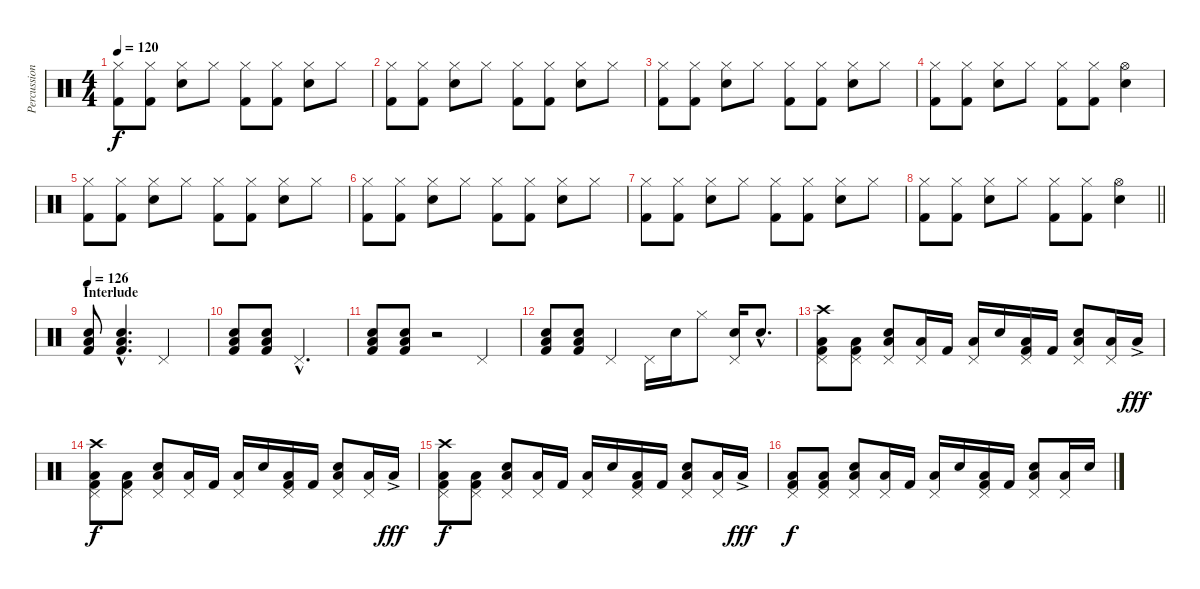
\track ("Percussion" "Percussion") {instrument percussion}
\staff {score}
\articulation defaults
\ts (4 4)
\tempo 120
\clef neutral
\ks c
("Hi-Hat (closed)" "Kick (hit) 2").8{dy f} ("Hi-Hat (closed)" "Kick (hit) 2").8 ("Hi-Hat (closed)" "Snare (hit) 2").8 "Hi-Hat (closed)".8 ("Hi-Hat (closed)" "Kick (hit) 2").8 ("Hi-Hat (closed)" "Kick (hit) 2").8 ("Hi-Hat (closed)" "Snare (hit) 2").8 "Hi-Hat (closed)".8 |
("Hi-Hat (closed)" "Kick (hit) 2").8 ("Hi-Hat (closed)" "Kick (hit) 2").8 ("Hi-Hat (closed)" "Snare (hit) 2").8 "Hi-Hat (closed)".8 ("Hi-Hat (closed)" "Kick (hit) 2").8 ("Hi-Hat (closed)" "Kick (hit) 2").8 ("Hi-Hat (closed)" "Snare (hit) 2").8 "Hi-Hat (closed)".8 |
("Hi-Hat (closed)" "Kick (hit) 2").8 ("Hi-Hat (closed)" "Kick (hit) 2").8 ("Hi-Hat (closed)" "Snare (hit) 2").8 "Hi-Hat (closed)".8 ("Hi-Hat (closed)" "Kick (hit) 2").8 ("Hi-Hat (closed)" "Kick (hit) 2").8 ("Hi-Hat (closed)" "Snare (hit) 2").8 "Hi-Hat (closed)".8 |
("Hi-Hat (closed)" "Kick (hit) 2").8 ("Hi-Hat (closed)" "Kick (hit) 2").8 ("Hi-Hat (closed)" "Snare (hit) 2").8 "Hi-Hat (closed)".8 ("Hi-Hat (closed)" "Kick (hit) 2").8 ("Hi-Hat (closed)" "Kick (hit) 2").8 ("Hi-Hat (open)" "Snare (hit) 2").4 |
("Hi-Hat (closed)" "Kick (hit) 2").8 ("Hi-Hat (closed)" "Kick (hit) 2").8 ("Hi-Hat (closed)" "Snare (hit) 2").8 "Hi-Hat (closed)".8 ("Hi-Hat (closed)" "Kick (hit) 2").8 ("Hi-Hat (closed)" "Kick (hit) 2").8 ("Hi-Hat (closed)" "Snare (hit) 2").8 "Hi-Hat (closed)".8 |
("Hi-Hat (closed)" "Kick (hit) 2").8 ("Hi-Hat (closed)" "Kick (hit) 2").8 ("Hi-Hat (closed)" "Snare (hit) 2").8 "Hi-Hat (closed)".8 ("Hi-Hat (closed)" "Kick (hit) 2").8 ("Hi-Hat (closed)" "Kick (hit) 2").8 ("Hi-Hat (closed)" "Snare (hit) 2").8 "Hi-Hat (closed)".8 |
("Hi-Hat (closed)" "Kick (hit) 2").8 ("Hi-Hat (closed)" "Kick (hit) 2").8 ("Hi-Hat (closed)" "Snare (hit) 2").8 "Hi-Hat (closed)".8 ("Hi-Hat (closed)" "Kick (hit) 2").8 ("Hi-Hat (closed)" "Kick (hit) 2").8 ("Hi-Hat (closed)" "Snare (hit) 2").8 "Hi-Hat (closed)".8 |
\barLineRight lightlight
("Hi-Hat (closed)" "Kick (hit) 2").8 ("Hi-Hat (closed)" "Kick (hit) 2").8 ("Hi-Hat (closed)" "Snare (hit) 2").8 "Hi-Hat (closed)".8 ("Hi-Hat (closed)" "Kick (hit) 2").8 ("Hi-Hat (closed)" "Kick (hit) 2").8 ("Hi-Hat (open)" "Snare (hit) 2").4 |
\section ("" "Interlude")
\tempo 126
("Snare (hit) 2" "Low Floor Tom (hit)" "Kick (hit) 2").8 ("Snare (hit) 2"{hac} "Low Floor Tom (hit)"{hac} "Kick (hit) 2"{hac}).4{d} "Pedal Hi-Hat (hit)".2 |
("Snare (hit) 2" "Low Floor Tom (hit)" "Kick (hit) 2").8 ("Snare (hit) 2" "Low Floor Tom (hit)" "Kick (hit) 2").8 "Pedal Hi-Hat (hit)"{hac}.2{d} |
("Snare (hit) 2" "Low Floor Tom (hit)" "Kick (hit) 2").8 ("Snare (hit) 2" "Low Floor Tom (hit)" "Kick (hit) 2").8 r.2 "Pedal Hi-Hat (hit)".4 |
("Snare (hit) 2" "Low Floor Tom (hit)" "Kick (hit) 2").8 ("Snare (hit) 2" "Low Floor Tom (hit)" "Kick (hit) 2").8 "Pedal Hi-Hat (hit)".4 "Pedal Hi-Hat (hit)".16 "Snare (hit) 2".16 "Hi-Hat (closed)".8 ("Pedal Hi-Hat (hit)" "Snare (hit) 2").16 "Snare (hit) 2"{hac}.8{d} |
("Crash high (hit)" "Pedal Hi-Hat (hit)" "Low Floor Tom (hit)" "Kick (hit) 2").8 ("Pedal Hi-Hat (hit)" "Low Floor Tom (hit)" "Kick (hit) 2").8 ("Pedal Hi-Hat (hit)" "Snare (hit) 2" "Low Floor Tom (hit)").8 ("Pedal Hi-Hat (hit)" "Low Floor Tom (hit)").16 "Kick (hit) 2".16 ("Pedal Hi-Hat (hit)" "Low Floor Tom (hit)").16 "Snare (hit) 2".16 ("Pedal Hi-Hat (hit)" "Low Floor Tom (hit)" "Kick (hit) 2").16 "Kick (hit) 2".16 ("Pedal Hi-Hat (hit)" "Snare (hit) 2" "Low Floor Tom (hit)").8 ("Pedal Hi-Hat (hit)" "Low Floor Tom (hit)").16 "Low Floor Tom (hit)"{ac}.16{dy fff} |
("Crash high (hit)" "Pedal Hi-Hat (hit)" "Low Floor Tom (hit)" "Kick (hit) 2").8{dy f} ("Pedal Hi-Hat (hit)" "Low Floor Tom (hit)" "Kick (hit) 2").8 ("Pedal Hi-Hat (hit)" "Snare (hit) 2" "Low Floor Tom (hit)").8 ("Pedal Hi-Hat (hit)" "Low Floor Tom (hit)").16 "Kick (hit) 2".16 ("Pedal Hi-Hat (hit)" "Low Floor Tom (hit)").16 "Snare (hit) 2".16 ("Pedal Hi-Hat (hit)" "Low Floor Tom (hit)" "Kick (hit) 2").16 "Kick (hit) 2".16 ("Pedal Hi-Hat (hit)" "Snare (hit) 2" "Low Floor Tom (hit)").8 ("Pedal Hi-Hat (hit)" "Low Floor Tom (hit)").16 "Low Floor Tom (hit)"{ac}.16{dy fff} |
("Crash high (hit)" "Pedal Hi-Hat (hit)" "Low Floor Tom (hit)" "Kick (hit) 2").8{dy f} ("Pedal Hi-Hat (hit)" "Low Floor Tom (hit)" "Kick (hit) 2").8 ("Pedal Hi-Hat (hit)" "Snare (hit) 2" "Low Floor Tom (hit)").8 ("Pedal Hi-Hat (hit)" "Low Floor Tom (hit)").16 "Kick (hit) 2".16 ("Pedal Hi-Hat (hit)" "Low Floor Tom (hit)").16 "Snare (hit) 2".16 ("Pedal Hi-Hat (hit)" "Low Floor Tom (hit)" "Kick (hit) 2").16 "Kick (hit) 2".16 ("Pedal Hi-Hat (hit)" "Snare (hit) 2" "Low Floor Tom (hit)").8 ("Pedal Hi-Hat (hit)" "Low Floor Tom (hit)").16 "Low Floor Tom (hit)"{ac}.16{dy fff} |
("Pedal Hi-Hat (hit)" "Low Floor Tom (hit)" "Kick (hit) 2").8{dy f} ("Pedal Hi-Hat (hit)" "Low Floor Tom (hit)" "Kick (hit) 2").8 ("Pedal Hi-Hat (hit)" "Snare (hit) 2" "Low Floor Tom (hit)").8 ("Pedal Hi-Hat (hit)" "Low Floor Tom (hit)").16 "Kick (hit) 2".16 ("Pedal Hi-Hat (hit)" "Low Floor Tom (hit)").16 "Snare (hit) 2".16 ("Pedal Hi-Hat (hit)" "Low Floor Tom (hit)" "Kick (hit) 2").16 "Kick (hit) 2".16 ("Pedal Hi-Hat (hit)" "Snare (hit) 2" "Low Floor Tom (hit)").8 ("Pedal Hi-Hat (hit)" "Low Floor Tom (hit)").16 "Snare (hit) 2".16
